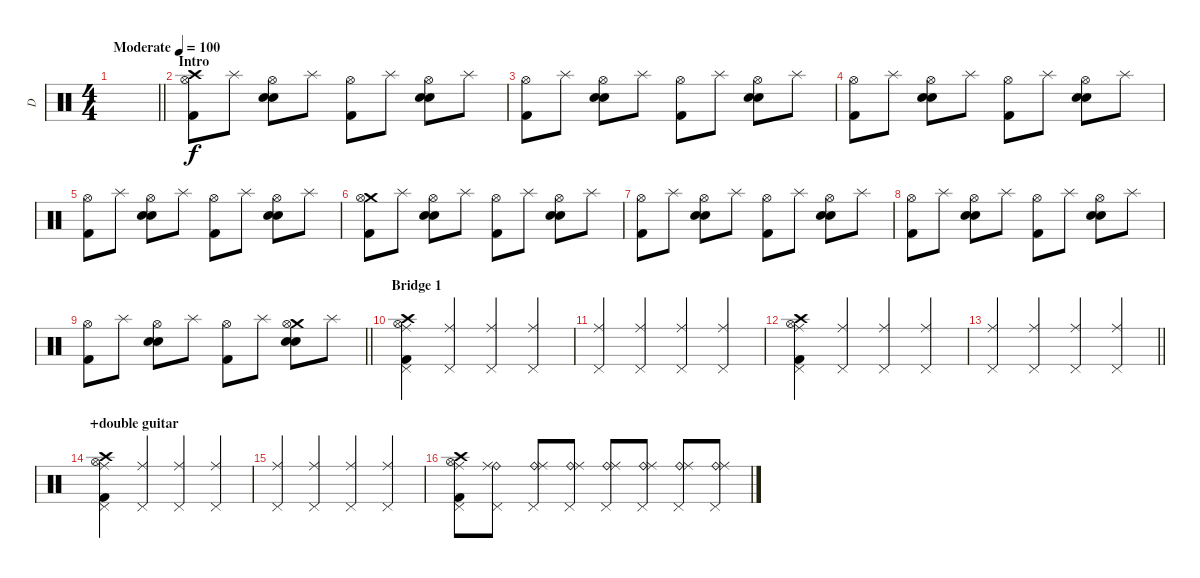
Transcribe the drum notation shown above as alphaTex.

\track ("D" "D") {instrument percussion}
\staff {score}
\articulation defaults
\ts (4 4)
\tempo (100 "Moderate")
\clef neutral
\barLineRight lightlight
\ks c
|
\section ("" "Intro")
("Crash high (hit)" "Kick (hit) 2" "Hi-Hat (open)").8 "Splash (hit)".8 ("Electric Snare (hit)" "Electric Snare (hit)" "Hi-Hat (open)").8 "Splash (hit)".8 ("Kick (hit) 2" "Hi-Hat (open)").8 "Splash (hit)".8 ("Electric Snare (hit)" "Electric Snare (hit)" "Hi-Hat (open)").8 "Splash (hit)".8 |
("Kick (hit) 2" "Hi-Hat (open)").8 "Splash (hit)".8 ("Electric Snare (hit)" "Electric Snare (hit)" "Hi-Hat (open)").8 "Splash (hit)".8 ("Kick (hit) 2" "Hi-Hat (open)").8 "Splash (hit)".8 ("Electric Snare (hit)" "Electric Snare (hit)" "Hi-Hat (open)").8 "Splash (hit)".8 |
("Kick (hit) 2" "Hi-Hat (open)").8 "Splash (hit)".8 ("Electric Snare (hit)" "Electric Snare (hit)" "Hi-Hat (open)").8 "Splash (hit)".8 ("Kick (hit) 2" "Hi-Hat (open)").8 "Splash (hit)".8 ("Electric Snare (hit)" "Electric Snare (hit)" "Hi-Hat (open)").8 "Splash (hit)".8 |
("Kick (hit) 2" "Hi-Hat (open)").8 "Splash (hit)".8 ("Electric Snare (hit)" "Electric Snare (hit)" "Hi-Hat (open)").8 "Splash (hit)".8 ("Kick (hit) 2" "Hi-Hat (open)").8 "Splash (hit)".8 ("Electric Snare (hit)" "Electric Snare (hit)" "Hi-Hat (open)").8 "Splash (hit)".8 |
("Crash medium (hit)" "Kick (hit) 2" "Hi-Hat (open)").8 "Splash (hit)".8 ("Electric Snare (hit)" "Electric Snare (hit)" "Hi-Hat (open)").8 "Splash (hit)".8 ("Kick (hit) 2" "Hi-Hat (open)").8 "Splash (hit)".8 ("Electric Snare (hit)" "Electric Snare (hit)" "Hi-Hat (open)").8 "Splash (hit)".8 |
("Kick (hit) 2" "Hi-Hat (open)").8 "Splash (hit)".8 ("Electric Snare (hit)" "Electric Snare (hit)" "Hi-Hat (open)").8 "Splash (hit)".8 ("Kick (hit) 2" "Hi-Hat (open)").8 "Splash (hit)".8 ("Electric Snare (hit)" "Electric Snare (hit)" "Hi-Hat (open)").8 "Splash (hit)".8 |
("Kick (hit) 2" "Hi-Hat (open)").8 "Splash (hit)".8 ("Electric Snare (hit)" "Electric Snare (hit)" "Hi-Hat (open)").8 "Splash (hit)".8 ("Kick (hit) 2" "Hi-Hat (open)").8 "Splash (hit)".8 ("Electric Snare (hit)" "Electric Snare (hit)" "Hi-Hat (open)").8 "Splash (hit)".8 |
\barLineRight lightlight
("Kick (hit) 2" "Hi-Hat (open)").8 "Splash (hit)".8 ("Electric Snare (hit)" "Electric Snare (hit)" "Hi-Hat (open)").8 "Splash (hit)".8 ("Kick (hit) 2" "Hi-Hat (open)").8 "Splash (hit)".8 ("Crash medium (hit)" "Electric Snare (hit)" "Electric Snare (hit)" "Hi-Hat (open)").8 "Splash (hit)".8 |
\section ("" "Bridge 1")
("Hi-Hat (open)" "Crash high (hit)" "Kick (hit) 2" "Pedal Hi-Hat (hit)" "Ride (middle)").4 ("Pedal Hi-Hat (hit)" "Ride (middle)").4 ("Pedal Hi-Hat (hit)" "Ride (middle)").4 ("Pedal Hi-Hat (hit)" "Ride (middle)").4 |
("Pedal Hi-Hat (hit)" "Ride (middle)").4 ("Pedal Hi-Hat (hit)" "Ride (middle)").4 ("Pedal Hi-Hat (hit)" "Ride (middle)").4 ("Pedal Hi-Hat (hit)" "Ride (middle)").4 |
("Hi-Hat (open)" "Crash high (hit)" "Kick (hit) 2" "Pedal Hi-Hat (hit)" "Ride (middle)").4 ("Pedal Hi-Hat (hit)" "Ride (middle)").4 ("Pedal Hi-Hat (hit)" "Ride (middle)").4 ("Pedal Hi-Hat (hit)" "Ride (middle)").4 |
\barLineRight lightlight
("Pedal Hi-Hat (hit)" "Ride (middle)").4 ("Pedal Hi-Hat (hit)" "Ride (middle)").4 ("Pedal Hi-Hat (hit)" "Ride (middle)").4 ("Pedal Hi-Hat (hit)" "Ride (middle)").4 |
\section ("" "+double guitar")
("Hi-Hat (open)" "Crash high (hit)" "Kick (hit) 2" "Pedal Hi-Hat (hit)" "Ride (middle)").4 ("Pedal Hi-Hat (hit)" "Ride (middle)").4 ("Pedal Hi-Hat (hit)" "Ride (middle)").4 ("Pedal Hi-Hat (hit)" "Ride (middle)").4 |
("Pedal Hi-Hat (hit)" "Ride (middle)").4 ("Pedal Hi-Hat (hit)" "Ride (middle)").4 ("Pedal Hi-Hat (hit)" "Ride (middle)").4 ("Pedal Hi-Hat (hit)" "Ride (middle)").4 |
("Hi-Hat (open)" "Crash high (hit)" "Kick (hit) 2" "Pedal Hi-Hat (hit)" "Ride (middle)").8 ("Ride (bell)" "Pedal Hi-Hat (hit)" "Ride (middle)").8 ("Ride (bell)" "Pedal Hi-Hat (hit)" "Ride (middle)").8 ("Ride (bell)" "Pedal Hi-Hat (hit)" "Ride (middle)").8 ("Ride (bell)" "Pedal Hi-Hat (hit)" "Ride (middle)").8 ("Ride (bell)" "Pedal Hi-Hat (hit)" "Ride (middle)").8 ("Ride (bell)" "Pedal Hi-Hat (hit)" "Ride (middle)").8 ("Ride (bell)" "Pedal Hi-Hat (hit)" "Ride (middle)").8
